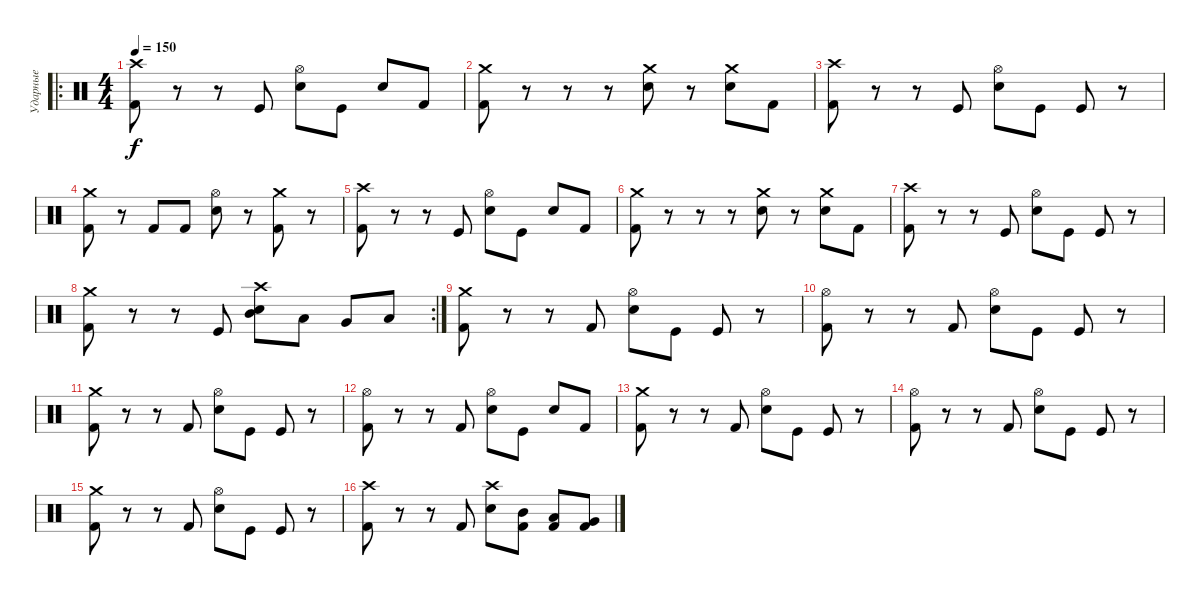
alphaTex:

\track ("Ударные" "Ударные") {instrument percussion}
\staff {score}
\articulation defaults
\ro
\ts (4 4)
\tempo 150
\clef neutral
\ks c
("Crash high (hit)" "Kick (hit) 2").8{dy f} r.8 r.8 "Kick (hit)".8 ("Hi-Hat (open)" "Snare (hit) 2").8 "Kick (hit)".8 "Snare (hit) 2".8 "Kick (hit) 2".8 |
("Crash medium (hit)" "Kick (hit) 2").8 r.8 r.8 r.8 ("Crash medium (hit)" "Snare (hit) 2").8 r.8 ("Crash medium (hit)" "Snare (hit) 2").8 "Kick (hit) 2".8 |
("Crash high (hit)" "Kick (hit) 2").8 r.8 r.8 "Kick (hit)".8 ("Snare (hit) 2" "Hi-Hat (open)").8 "Kick (hit)".8 "Kick (hit)".8 r.8 |
("Crash medium (hit)" "Kick (hit) 2").8 r.8 "Kick (hit) 2".8 "Kick (hit) 2".8 ("Snare (hit) 2" "Hi-Hat (open)").8 r.8 ("Crash medium (hit)" "Kick (hit) 2").8 r.8 |
("Crash high (hit)" "Kick (hit) 2").8 r.8 r.8 "Kick (hit)".8 ("Hi-Hat (open)" "Snare (hit) 2").8 "Kick (hit)".8 "Snare (hit) 2".8 "Kick (hit) 2".8 |
("Crash medium (hit)" "Kick (hit) 2").8 r.8 r.8 r.8 ("Crash medium (hit)" "Snare (hit) 2").8 r.8 ("Crash medium (hit)" "Snare (hit) 2").8 "Kick (hit) 2".8 |
("Crash high (hit)" "Kick (hit) 2").8 r.8 r.8 "Kick (hit)".8 ("Snare (hit) 2" "Hi-Hat (open)").8 "Kick (hit)".8 "Kick (hit)".8 r.8 |
\rc 2
("Crash medium (hit)" "Kick (hit) 2").8 r.8 r.8 "Kick (hit)".8 ("Mid Tom (hit)" "Crash high (hit)" "Snare (hit) 2").8 "Low Tom (hit)".8 "Very Low Tom (hit)".8 "Low Floor Tom (hit)".8 |
("Crash medium (hit)" "Kick (hit) 2").8 r.8 r.8 "Kick (hit) 2".8 ("Hi-Hat (open)" "Snare (hit) 2").8 "Kick (hit)".8 "Kick (hit)".8 r.8 |
("Hi-Hat (open)" "Kick (hit) 2").8 r.8 r.8 "Kick (hit) 2".8 ("Hi-Hat (open)" "Snare (hit) 2").8 "Kick (hit)".8 "Kick (hit)".8 r.8 |
("Crash medium (hit)" "Kick (hit) 2").8 r.8 r.8 "Kick (hit) 2".8 ("Hi-Hat (open)" "Snare (hit) 2").8 "Kick (hit)".8 "Kick (hit)".8 r.8 |
("Hi-Hat (open)" "Kick (hit) 2").8 r.8 r.8 "Kick (hit) 2".8 ("Hi-Hat (open)" "Snare (hit) 2").8 "Kick (hit)".8 "Snare (hit) 2".8 "Kick (hit) 2".8 |
("Crash medium (hit)" "Kick (hit) 2").8 r.8 r.8 "Kick (hit) 2".8 ("Hi-Hat (open)" "Snare (hit) 2").8 "Kick (hit)".8 "Kick (hit)".8 r.8 |
("Hi-Hat (open)" "Kick (hit) 2").8 r.8 r.8 "Kick (hit) 2".8 ("Hi-Hat (open)" "Snare (hit) 2").8 "Kick (hit)".8 "Kick (hit)".8 r.8 |
("Crash medium (hit)" "Kick (hit) 2").8 r.8 r.8 "Kick (hit) 2".8 ("Hi-Hat (open)" "Snare (hit) 2").8 "Kick (hit)".8 "Kick (hit)".8 r.8 |
("Crash high (hit)" "Kick (hit) 2").8 r.8 r.8 "Kick (hit) 2".8 ("Crash high (hit)" "Snare (hit) 2").8 ("Mid Tom (hit)" "Kick (hit) 2").8 ("Low Tom (hit)" "Kick (hit) 2").8 ("Very Low Tom (hit)" "Kick (hit) 2").8
